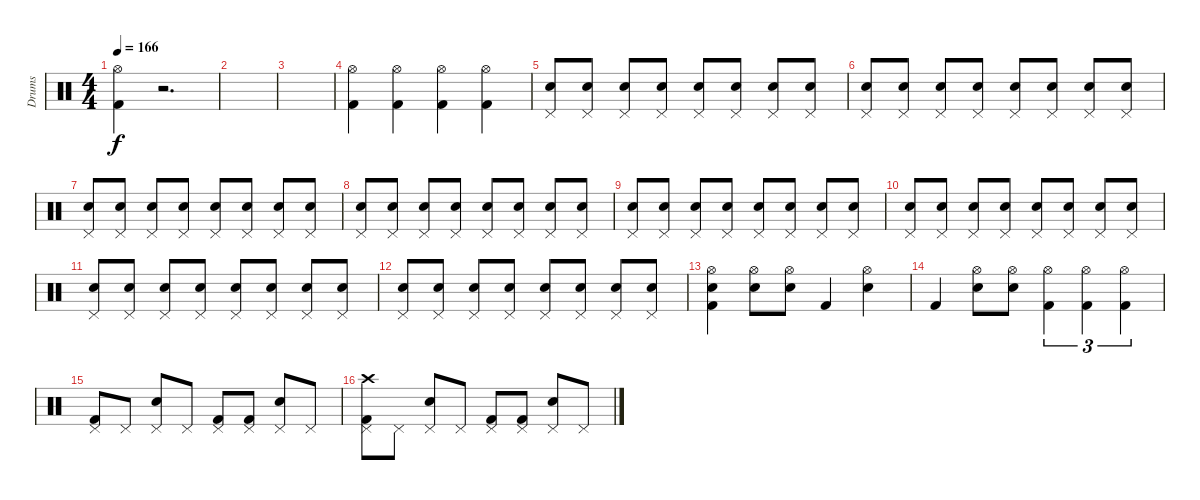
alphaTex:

\track ("Drums" "Drums") {instrument percussion}
\staff {score}
\articulation defaults
\ts (4 4)
\tempo 166
\clef neutral
\ks c
("Hi-Hat (open)" "Kick (hit) 2").4{dy f} r.2{d} |
|
|
("Hi-Hat (open)" "Kick (hit) 2").4 ("Hi-Hat (open)" "Kick (hit) 2").4 ("Hi-Hat (open)" "Kick (hit) 2").4 ("Hi-Hat (open)" "Kick (hit) 2").4 |
("Electric Snare (hit)" "Pedal Hi-Hat (hit)").8{volume 4} ("Electric Snare (hit)" "Pedal Hi-Hat (hit)").8{volume 14} ("Electric Snare (hit)" "Pedal Hi-Hat (hit)").8 ("Electric Snare (hit)" "Pedal Hi-Hat (hit)").8 ("Electric Snare (hit)" "Pedal Hi-Hat (hit)").8 ("Electric Snare (hit)" "Pedal Hi-Hat (hit)").8 ("Electric Snare (hit)" "Pedal Hi-Hat (hit)").8 ("Electric Snare (hit)" "Pedal Hi-Hat (hit)").8 |
("Electric Snare (hit)" "Pedal Hi-Hat (hit)").8 ("Electric Snare (hit)" "Pedal Hi-Hat (hit)").8 ("Electric Snare (hit)" "Pedal Hi-Hat (hit)").8 ("Electric Snare (hit)" "Pedal Hi-Hat (hit)").8 ("Electric Snare (hit)" "Pedal Hi-Hat (hit)").8 ("Electric Snare (hit)" "Pedal Hi-Hat (hit)").8 ("Electric Snare (hit)" "Pedal Hi-Hat (hit)").8 ("Electric Snare (hit)" "Pedal Hi-Hat (hit)").8 |
("Electric Snare (hit)" "Pedal Hi-Hat (hit)").8 ("Electric Snare (hit)" "Pedal Hi-Hat (hit)").8 ("Electric Snare (hit)" "Pedal Hi-Hat (hit)").8 ("Electric Snare (hit)" "Pedal Hi-Hat (hit)").8 ("Electric Snare (hit)" "Pedal Hi-Hat (hit)").8 ("Electric Snare (hit)" "Pedal Hi-Hat (hit)").8 ("Electric Snare (hit)" "Pedal Hi-Hat (hit)").8 ("Electric Snare (hit)" "Pedal Hi-Hat (hit)").8 |
("Electric Snare (hit)" "Pedal Hi-Hat (hit)").8 ("Electric Snare (hit)" "Pedal Hi-Hat (hit)").8 ("Electric Snare (hit)" "Pedal Hi-Hat (hit)").8 ("Electric Snare (hit)" "Pedal Hi-Hat (hit)").8 ("Electric Snare (hit)" "Pedal Hi-Hat (hit)").8 ("Electric Snare (hit)" "Pedal Hi-Hat (hit)").8 ("Electric Snare (hit)" "Pedal Hi-Hat (hit)").8 ("Electric Snare (hit)" "Pedal Hi-Hat (hit)").8 |
("Electric Snare (hit)" "Pedal Hi-Hat (hit)").8 ("Electric Snare (hit)" "Pedal Hi-Hat (hit)").8 ("Electric Snare (hit)" "Pedal Hi-Hat (hit)").8 ("Electric Snare (hit)" "Pedal Hi-Hat (hit)").8 ("Electric Snare (hit)" "Pedal Hi-Hat (hit)").8 ("Electric Snare (hit)" "Pedal Hi-Hat (hit)").8 ("Electric Snare (hit)" "Pedal Hi-Hat (hit)").8 ("Electric Snare (hit)" "Pedal Hi-Hat (hit)").8 |
("Electric Snare (hit)" "Pedal Hi-Hat (hit)").8 ("Electric Snare (hit)" "Pedal Hi-Hat (hit)").8 ("Electric Snare (hit)" "Pedal Hi-Hat (hit)").8 ("Electric Snare (hit)" "Pedal Hi-Hat (hit)").8 ("Electric Snare (hit)" "Pedal Hi-Hat (hit)").8 ("Electric Snare (hit)" "Pedal Hi-Hat (hit)").8 ("Electric Snare (hit)" "Pedal Hi-Hat (hit)").8 ("Electric Snare (hit)" "Pedal Hi-Hat (hit)").8 |
("Electric Snare (hit)" "Pedal Hi-Hat (hit)").8 ("Electric Snare (hit)" "Pedal Hi-Hat (hit)").8 ("Electric Snare (hit)" "Pedal Hi-Hat (hit)").8 ("Electric Snare (hit)" "Pedal Hi-Hat (hit)").8 ("Electric Snare (hit)" "Pedal Hi-Hat (hit)").8 ("Electric Snare (hit)" "Pedal Hi-Hat (hit)").8 ("Electric Snare (hit)" "Pedal Hi-Hat (hit)").8 ("Electric Snare (hit)" "Pedal Hi-Hat (hit)").8 |
("Electric Snare (hit)" "Pedal Hi-Hat (hit)").8 ("Electric Snare (hit)" "Pedal Hi-Hat (hit)").8 ("Electric Snare (hit)" "Pedal Hi-Hat (hit)").8 ("Electric Snare (hit)" "Pedal Hi-Hat (hit)").8 ("Electric Snare (hit)" "Pedal Hi-Hat (hit)").8 ("Electric Snare (hit)" "Pedal Hi-Hat (hit)").8 ("Electric Snare (hit)" "Pedal Hi-Hat (hit)").8 ("Electric Snare (hit)" "Pedal Hi-Hat (hit)").8 |
("Electric Snare (hit)" "Hi-Hat (open)" "Kick (hit) 2").4{volume 13} ("Electric Snare (hit)" "Hi-Hat (open)").8 ("Electric Snare (hit)" "Hi-Hat (open)").8 "Kick (hit) 2".4 ("Electric Snare (hit)" "Hi-Hat (open)").4 |
"Kick (hit) 2".4 ("Electric Snare (hit)" "Hi-Hat (open)").8 ("Electric Snare (hit)" "Hi-Hat (open)").8 ("Hi-Hat (open)" "Kick (hit) 2").4{tu (3 2)} ("Hi-Hat (open)" "Kick (hit) 2").4{tu (3 2)} ("Hi-Hat (open)" "Kick (hit) 2").4{tu (3 2)} |
("Pedal Hi-Hat (hit)" "Kick (hit) 2").8 "Pedal Hi-Hat (hit)".8 ("Electric Snare (hit)" "Pedal Hi-Hat (hit)").8 "Pedal Hi-Hat (hit)".8 ("Pedal Hi-Hat (hit)" "Kick (hit) 2").8 ("Pedal Hi-Hat (hit)" "Kick (hit) 2").8 ("Electric Snare (hit)" "Pedal Hi-Hat (hit)").8 "Pedal Hi-Hat (hit)".8 |
("Pedal Hi-Hat (hit)" "Crash high (hit)" "Kick (hit) 2").8 "Pedal Hi-Hat (hit)".8 ("Electric Snare (hit)" "Pedal Hi-Hat (hit)").8 "Pedal Hi-Hat (hit)".8 ("Pedal Hi-Hat (hit)" "Kick (hit) 2").8 ("Pedal Hi-Hat (hit)" "Kick (hit) 2").8 ("Electric Snare (hit)" "Pedal Hi-Hat (hit)").8 "Pedal Hi-Hat (hit)".8
